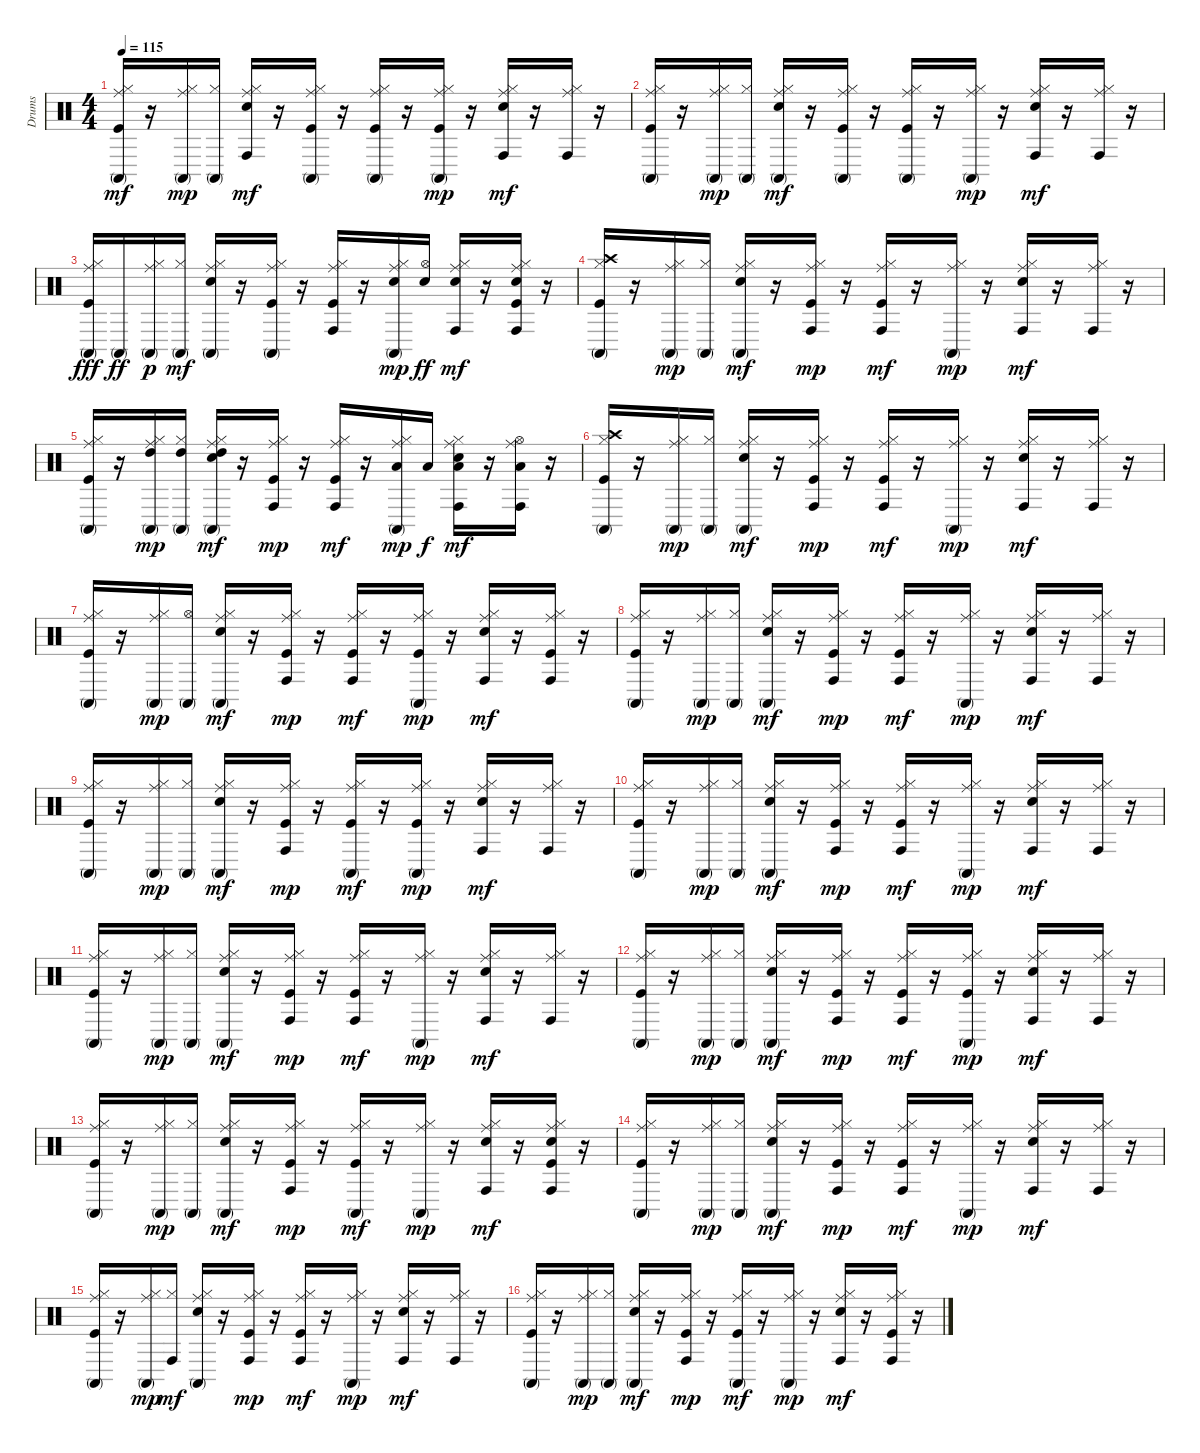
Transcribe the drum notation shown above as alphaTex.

\track ("Drums" "Drums") {instrument percussion}
\staff {score}
\articulation defaults
\ts (4 4)
\tempo 115
\clef neutral
\ks c
("Kick (hit)" "Hi-Hat (closed)" "Ride (middle)" "Conga high (mute)").16{dy mf} r.16 ("Hi-Hat (closed)" "Ride (middle)" "Conga high (mute)").16{dy mp} ("Hi-Hat (closed)" "Conga high (mute)").16 ("Snare (hit) 2" "Hi-Hat (closed)" "Ride (middle)" "Conga high (hit)").16{dy mf} r.16 ("Kick (hit)" "Hi-Hat (closed)" "Ride (middle)" "Conga high (mute)").16 r.16 ("Kick (hit)" "Hi-Hat (closed)" "Ride (middle)" "Conga high (mute)").16 r.16 ("Kick (hit)" "Hi-Hat (closed)" "Ride (middle)" "Conga high (mute)").16{dy mp} r.16 ("Snare (hit) 2" "Hi-Hat (closed)" "Ride (middle)" "Conga high (hit)").16{dy mf} r.16 ("Hi-Hat (closed)" "Ride (middle)" "Conga high (hit)").16 r.16 |
("Kick (hit)" "Hi-Hat (closed)" "Ride (middle)" "Conga high (mute)").16 r.16 ("Hi-Hat (closed)" "Ride (middle)" "Conga high (mute)").16{dy mp} ("Hi-Hat (closed)" "Conga high (mute)").16 ("Snare (hit) 2" "Hi-Hat (closed)" "Ride (middle)" "Conga high (mute)").16{dy mf} r.16 ("Kick (hit)" "Hi-Hat (closed)" "Ride (middle)" "Conga high (mute)").16 r.16 ("Kick (hit)" "Hi-Hat (closed)" "Ride (middle)" "Conga high (mute)").16 r.16 ("Hi-Hat (closed)" "Ride (middle)" "Conga high (mute)").16{dy mp} r.16 ("Snare (hit) 2" "Hi-Hat (closed)" "Ride (middle)" "Conga high (hit)").16{dy mf} r.16 ("Hi-Hat (closed)" "Ride (middle)" "Conga high (hit)").16 r.16 |
("Kick (hit)" "Hi-Hat (closed)" "Ride (middle)" "Conga high (mute)").16{dy fff} "Conga high (mute)".16{dy ff} ("Hi-Hat (closed)" "Ride (middle)" "Conga high (mute)").16{dy p} ("Hi-Hat (closed)" "Conga high (mute)").16{dy mf} ("Snare (hit) 2" "Hi-Hat (closed)" "Ride (middle)" "Conga high (mute)").16 r.16 ("Kick (hit)" "Hi-Hat (closed)" "Ride (middle)" "Conga high (mute)").16 r.16 ("Kick (hit)" "Hi-Hat (closed)" "Ride (middle)" "Conga high (hit)").16 r.16 ("Snare (hit) 2" "Hi-Hat (closed)" "Ride (middle)" "Conga high (mute)").16{dy mp} ("Snare (hit) 2" "Hi-Hat (open)").16{dy ff} ("Snare (hit) 2" "Hi-Hat (closed)" "Ride (middle)" "Conga high (hit)").16{dy mf} r.16 ("Kick (hit)" "Snare (hit) 2" "Hi-Hat (closed)" "Ride (middle)" "Conga high (hit)").16 r.16 |
("Kick (hit)" "Hi-Hat (closed)" "Crash high (hit)" "Conga high (mute)").16 r.16 ("Hi-Hat (closed)" "Ride (middle)" "Conga high (mute)").16{dy mp} ("Hi-Hat (closed)" "Conga high (mute)").16 ("Snare (hit) 2" "Hi-Hat (closed)" "Ride (middle)" "Conga high (mute)").16{dy mf} r.16 ("Kick (hit)" "Hi-Hat (closed)" "Ride (middle)" "Conga high (hit)").16{dy mp} r.16 ("Kick (hit)" "Hi-Hat (closed)" "Ride (middle)" "Conga high (hit)").16{dy mf} r.16 ("Hi-Hat (closed)" "Ride (middle)" "Conga high (mute)").16{dy mp} r.16 ("Snare (hit) 2" "Hi-Hat (closed)" "Ride (middle)" "Conga high (hit)").16{dy mf} r.16 ("Hi-Hat (closed)" "Ride (middle)" "Conga high (hit)").16 r.16 |
("Kick (hit)" "Hi-Hat (closed)" "Ride (middle)" "Conga high (mute)").16 r.16 ("Hi-Hat (closed)" "Ride (middle)" "High Tom (hit)" "Conga high (mute)").16{dy mp} ("Hi-Hat (closed)" "High Tom (hit)" "Conga high (mute)").16 ("Snare (hit) 2" "Hi-Hat (closed)" "Ride (middle)" "High Tom (hit)" "Conga high (mute)").16{dy mf} r.16 ("Kick (hit)" "Hi-Hat (closed)" "Ride (middle)" "Conga high (hit)").16{dy mp} r.16 ("Kick (hit)" "Hi-Hat (closed)" "Ride (middle)" "Conga high (hit)").16{dy mf} r.16 ("Hi-Hat (closed)" "Ride (middle)" "Low Tom (hit)" "Conga high (mute)").16{dy mp} "Low Tom (hit)".16{dy f} ("Snare (hit) 2" "Hi-Hat (closed)" "Ride (middle)" "Low Tom (hit)" "Conga high (hit)").16{dy mf} r.16 ("Hi-Hat (open)" "Ride (middle)" "Low Floor Tom (hit)" "Conga high (hit)").16 r.16 |
("Kick (hit)" "Hi-Hat (closed)" "Crash high (hit)" "Conga high (mute)").16 r.16 ("Hi-Hat (closed)" "Ride (middle)" "Conga high (mute)").16{dy mp} ("Hi-Hat (closed)" "Conga high (mute)").16 ("Snare (hit) 2" "Hi-Hat (closed)" "Ride (middle)" "Conga high (mute)").16{dy mf} r.16 ("Kick (hit)" "Hi-Hat (closed)" "Ride (middle)" "Conga high (hit)").16{dy mp} r.16 ("Kick (hit)" "Hi-Hat (closed)" "Ride (middle)" "Conga high (hit)").16{dy mf} r.16 ("Hi-Hat (closed)" "Ride (middle)" "Conga high (mute)").16{dy mp} r.16 ("Snare (hit) 2" "Hi-Hat (closed)" "Ride (middle)" "Conga high (hit)").16{dy mf} r.16 ("Hi-Hat (closed)" "Ride (middle)" "Conga high (hit)").16 r.16 |
("Kick (hit)" "Hi-Hat (closed)" "Ride (middle)" "Conga high (mute)").16 r.16 ("Hi-Hat (closed)" "Ride (middle)" "Conga high (mute)").16{dy mp} ("Hi-Hat (open)" "Conga high (mute)").16 ("Snare (hit) 2" "Hi-Hat (closed)" "Ride (middle)" "Conga high (mute)").16{dy mf} r.16 ("Kick (hit)" "Hi-Hat (closed)" "Ride (middle)" "Conga high (hit)").16{dy mp} r.16 ("Kick (hit)" "Hi-Hat (closed)" "Ride (middle)" "Conga high (hit)").16{dy mf} r.16 ("Kick (hit)" "Hi-Hat (closed)" "Ride (middle)" "Conga high (mute)").16{dy mp} r.16 ("Snare (hit) 2" "Hi-Hat (closed)" "Ride (middle)" "Conga high (hit)").16{dy mf} r.16 ("Kick (hit)" "Hi-Hat (closed)" "Ride (middle)" "Conga high (hit)").16 r.16 |
("Kick (hit)" "Hi-Hat (closed)" "Ride (middle)" "Conga high (mute)").16 r.16 ("Hi-Hat (closed)" "Ride (middle)" "Conga high (mute)").16{dy mp} ("Hi-Hat (closed)" "Conga high (mute)").16 ("Snare (hit) 2" "Hi-Hat (closed)" "Ride (middle)" "Conga high (mute)").16{dy mf} r.16 ("Kick (hit)" "Hi-Hat (closed)" "Ride (middle)" "Conga high (hit)").16{dy mp} r.16 ("Kick (hit)" "Hi-Hat (closed)" "Ride (middle)" "Conga high (hit)").16{dy mf} r.16 ("Hi-Hat (closed)" "Ride (middle)" "Conga high (mute)").16{dy mp} r.16 ("Snare (hit) 2" "Hi-Hat (closed)" "Ride (middle)" "Conga high (hit)").16{dy mf} r.16 ("Hi-Hat (closed)" "Ride (middle)" "Conga high (hit)").16 r.16 |
("Kick (hit)" "Hi-Hat (closed)" "Ride (middle)" "Conga high (mute)").16 r.16 ("Hi-Hat (closed)" "Ride (middle)" "Conga high (mute)").16{dy mp} ("Hi-Hat (closed)" "Conga high (mute)").16 ("Snare (hit) 2" "Hi-Hat (closed)" "Ride (middle)" "Conga high (mute)").16{dy mf} r.16 ("Kick (hit)" "Hi-Hat (closed)" "Ride (middle)" "Conga high (hit)").16{dy mp} r.16 ("Kick (hit)" "Hi-Hat (closed)" "Ride (middle)" "Conga high (mute)").16{dy mf} r.16 ("Kick (hit)" "Hi-Hat (closed)" "Ride (middle)" "Conga high (mute)").16{dy mp} r.16 ("Snare (hit) 2" "Hi-Hat (closed)" "Ride (middle)" "Conga high (hit)").16{dy mf} r.16 ("Hi-Hat (closed)" "Ride (middle)" "Conga high (hit)").16 r.16 |
("Kick (hit)" "Hi-Hat (closed)" "Ride (middle)" "Conga high (mute)").16 r.16 ("Hi-Hat (closed)" "Ride (middle)" "Conga high (mute)").16{dy mp} ("Hi-Hat (closed)" "Conga high (mute)").16 ("Snare (hit) 2" "Hi-Hat (closed)" "Ride (middle)" "Conga high (mute)").16{dy mf} r.16 ("Kick (hit)" "Hi-Hat (closed)" "Ride (middle)" "Conga high (hit)").16{dy mp} r.16 ("Kick (hit)" "Hi-Hat (closed)" "Ride (middle)" "Conga high (hit)").16{dy mf} r.16 ("Hi-Hat (closed)" "Ride (middle)" "Conga high (mute)").16{dy mp} r.16 ("Snare (hit) 2" "Hi-Hat (closed)" "Ride (middle)" "Conga high (hit)").16{dy mf} r.16 ("Hi-Hat (closed)" "Ride (middle)" "Conga high (hit)").16 r.16 |
("Kick (hit)" "Hi-Hat (closed)" "Ride (middle)" "Conga high (mute)").16 r.16 ("Hi-Hat (closed)" "Ride (middle)" "Conga high (mute)").16{dy mp} ("Hi-Hat (closed)" "Conga high (mute)").16 ("Snare (hit) 2" "Hi-Hat (closed)" "Ride (middle)" "Conga high (mute)").16{dy mf} r.16 ("Kick (hit)" "Hi-Hat (closed)" "Ride (middle)" "Conga high (hit)").16{dy mp} r.16 ("Kick (hit)" "Hi-Hat (closed)" "Ride (middle)" "Conga high (hit)").16{dy mf} r.16 ("Hi-Hat (closed)" "Ride (middle)" "Conga high (mute)").16{dy mp} r.16 ("Snare (hit) 2" "Hi-Hat (closed)" "Ride (middle)" "Conga high (hit)").16{dy mf} r.16 ("Hi-Hat (closed)" "Ride (middle)" "Conga high (hit)").16 r.16 |
("Kick (hit)" "Hi-Hat (closed)" "Ride (middle)" "Conga high (mute)").16 r.16 ("Hi-Hat (closed)" "Ride (middle)" "Conga high (mute)").16{dy mp} ("Hi-Hat (closed)" "Conga high (mute)").16 ("Snare (hit) 2" "Hi-Hat (closed)" "Ride (middle)" "Conga high (mute)").16{dy mf} r.16 ("Kick (hit)" "Hi-Hat (closed)" "Ride (middle)" "Conga high (hit)").16{dy mp} r.16 ("Kick (hit)" "Hi-Hat (closed)" "Ride (middle)" "Conga high (hit)").16{dy mf} r.16 ("Kick (hit)" "Hi-Hat (closed)" "Ride (middle)" "Conga high (mute)").16{dy mp} r.16 ("Snare (hit) 2" "Hi-Hat (closed)" "Ride (middle)" "Conga high (hit)").16{dy mf} r.16 ("Hi-Hat (closed)" "Ride (middle)" "Conga high (hit)").16 r.16 |
("Kick (hit)" "Hi-Hat (closed)" "Ride (middle)" "Conga high (mute)").16 r.16 ("Hi-Hat (closed)" "Ride (middle)" "Conga high (mute)").16{dy mp} ("Hi-Hat (closed)" "Conga high (mute)").16 ("Snare (hit) 2" "Hi-Hat (closed)" "Ride (middle)" "Conga high (mute)").16{dy mf} r.16 ("Kick (hit)" "Hi-Hat (closed)" "Ride (middle)" "Conga high (hit)").16{dy mp} r.16 ("Kick (hit)" "Hi-Hat (closed)" "Ride (middle)" "Conga high (mute)").16{dy mf} r.16 ("Hi-Hat (closed)" "Ride (middle)" "Conga high (mute)").16{dy mp} r.16 ("Snare (hit) 2" "Hi-Hat (closed)" "Ride (middle)" "Conga high (hit)").16{dy mf} r.16 ("Kick (hit)" "Snare (hit) 2" "Hi-Hat (closed)" "Ride (middle)" "Conga high (hit)").16 r.16 |
("Kick (hit)" "Hi-Hat (closed)" "Ride (middle)" "Conga high (mute)").16 r.16 ("Hi-Hat (closed)" "Ride (middle)" "Conga high (mute)").16{dy mp} ("Hi-Hat (closed)" "Conga high (mute)").16 ("Snare (hit) 2" "Hi-Hat (closed)" "Ride (middle)" "Conga high (mute)").16{dy mf} r.16 ("Kick (hit)" "Hi-Hat (closed)" "Ride (middle)" "Conga high (hit)").16{dy mp} r.16 ("Kick (hit)" "Hi-Hat (closed)" "Ride (middle)" "Conga high (hit)").16{dy mf} r.16 ("Hi-Hat (closed)" "Ride (middle)" "Conga high (mute)").16{dy mp} r.16 ("Snare (hit) 2" "Hi-Hat (closed)" "Ride (middle)" "Conga high (hit)").16{dy mf} r.16 ("Hi-Hat (closed)" "Ride (middle)" "Conga high (hit)").16 r.16 |
("Kick (hit)" "Hi-Hat (closed)" "Ride (middle)" "Conga high (mute)").16 r.16 ("Hi-Hat (closed)" "Ride (middle)" "Conga high (mute)").16{dy mp} ("Hi-Hat (closed)" "Conga high (hit)").16{dy mf} ("Snare (hit) 2" "Hi-Hat (closed)" "Ride (middle)" "Conga high (mute)").16 r.16 ("Kick (hit)" "Hi-Hat (closed)" "Ride (middle)" "Conga high (hit)").16{dy mp} r.16 ("Kick (hit)" "Hi-Hat (closed)" "Ride (middle)" "Conga high (hit)").16{dy mf} r.16 ("Hi-Hat (closed)" "Ride (middle)" "Conga high (mute)").16{dy mp} r.16 ("Snare (hit) 2" "Hi-Hat (closed)" "Ride (middle)" "Conga high (hit)").16{dy mf} r.16 ("Hi-Hat (closed)" "Ride (middle)" "Conga high (hit)").16 r.16 |
("Kick (hit)" "Hi-Hat (closed)" "Ride (middle)" "Conga high (mute)").16 r.16 ("Hi-Hat (closed)" "Ride (middle)" "Conga high (mute)").16{dy mp} ("Hi-Hat (closed)" "Conga high (mute)").16 ("Snare (hit) 2" "Hi-Hat (closed)" "Ride (middle)" "Conga high (mute)").16{dy mf} r.16 ("Kick (hit)" "Hi-Hat (closed)" "Ride (middle)" "Conga high (hit)").16{dy mp} r.16 ("Kick (hit)" "Hi-Hat (closed)" "Ride (middle)" "Conga high (mute)").16{dy mf} r.16 ("Hi-Hat (closed)" "Ride (middle)" "Conga high (mute)").16{dy mp} r.16 ("Snare (hit) 2" "Hi-Hat (closed)" "Ride (middle)" "Conga high (hit)").16{dy mf} r.16 ("Kick (hit)" "Hi-Hat (closed)" "Ride (middle)" "Conga high (hit)").16 r.16
